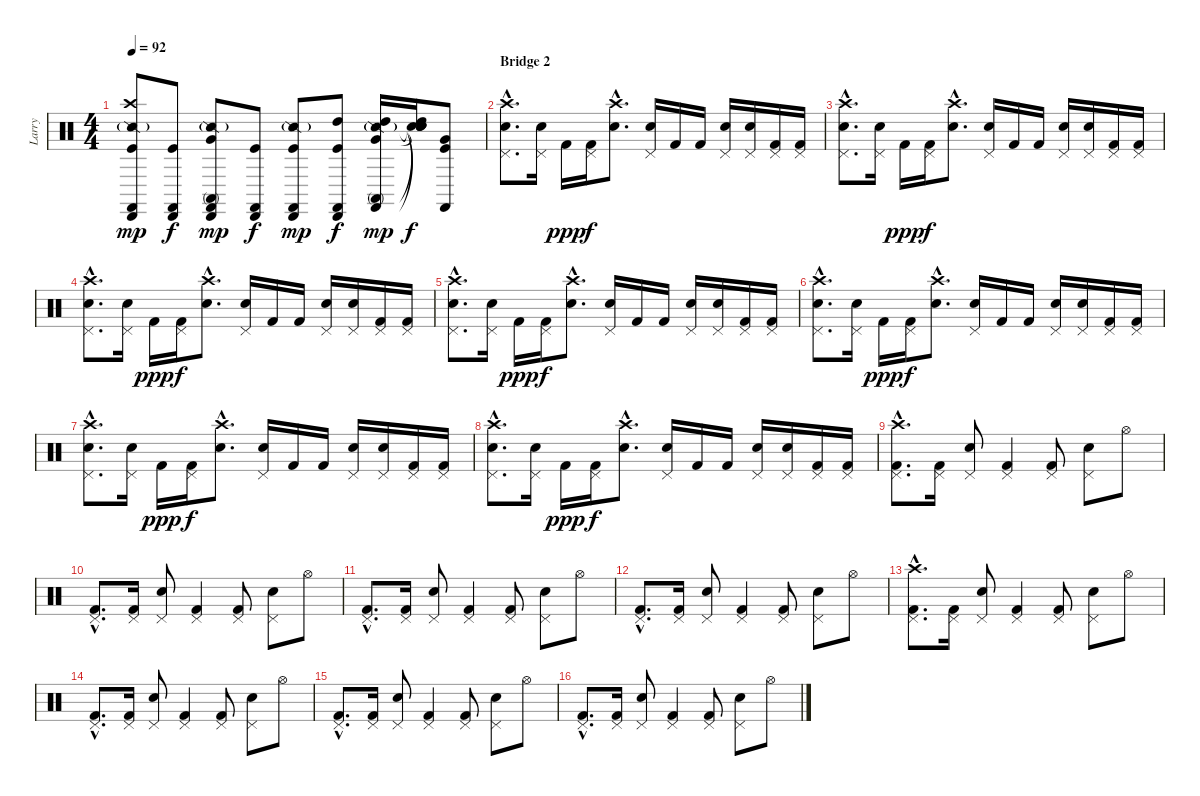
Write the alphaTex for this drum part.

\track ("Larry" "Larry") {instrument percussion}
\staff {score}
\articulation defaults
\ts (4 4)
\tempo 92
\clef neutral
\ks c
("Snare (side stick) 2"{g} "Castanets (hit)" "Cabasa (hit)" "Kick (hit)" "Crash high (hit)").8{dy mp} ("Castanets (hit)" "Cabasa (hit)" "Kick (hit)").8{dy f} ("Snare (side stick) 2"{g} "Castanets (hit)" "Cabasa (hit)" "Conga high (mute)" "Very Low Tom (hit)").8{dy mp} ("Castanets (hit)" "Cabasa (hit)" "Kick (hit)").8{dy f} ("Snare (side stick) 2"{g} "Castanets (hit)" "Cabasa (hit)" "Kick (hit)").8{dy mp} ("Castanets (hit)" "Cabasa (hit)" "High Tom (hit)" "Kick (hit)").8{dy f} ("Snare (side stick) 2"{g} "Castanets (hit)" "High Tom (hit)" "Conga high (mute)" "Very Low Tom (hit)").16{dy mp} ("Snare (hit)"{t} "Snare (hit)"{t} "High Tom (hit)" "Snare (hit)"{t} "Snare (hit)"{t}).16{dy f} ("Castanets (hit)" "Very Low Tom (hit)" "Kick (hit)").8 |
\section ("" "Bridge 2")
("Crash high (hit)"{hac} "Pedal Hi-Hat (hit)"{hac} "Snare (hit) 2"{hac}).8{d} ("Pedal Hi-Hat (hit)" "Snare (hit) 2").16 "Kick (hit) 2".16{dy ppp} ("Pedal Hi-Hat (hit)" "Kick (hit) 2").16{dy f} ("Crash high (hit)"{hac} "Snare (hit) 2"{hac}).8{d} ("Pedal Hi-Hat (hit)" "Snare (hit) 2").16 "Kick (hit) 2".16 "Kick (hit) 2".16 ("Pedal Hi-Hat (hit)" "Snare (hit) 2").16 ("Pedal Hi-Hat (hit)" "Snare (hit) 2").16 ("Pedal Hi-Hat (hit)" "Kick (hit) 2").16 ("Pedal Hi-Hat (hit)" "Kick (hit) 2").16 |
("Crash high (hit)"{hac} "Pedal Hi-Hat (hit)"{hac} "Snare (hit) 2"{hac}).8{d} ("Pedal Hi-Hat (hit)" "Snare (hit) 2").16 "Kick (hit) 2".16{dy ppp} ("Pedal Hi-Hat (hit)" "Kick (hit) 2").16{dy f} ("Crash high (hit)"{hac} "Snare (hit) 2"{hac}).8{d} ("Pedal Hi-Hat (hit)" "Snare (hit) 2").16 "Kick (hit) 2".16 "Kick (hit) 2".16 ("Pedal Hi-Hat (hit)" "Snare (hit) 2").16 ("Pedal Hi-Hat (hit)" "Snare (hit) 2").16 ("Pedal Hi-Hat (hit)" "Kick (hit) 2").16 ("Pedal Hi-Hat (hit)" "Kick (hit) 2").16 |
("Crash high (hit)"{hac} "Pedal Hi-Hat (hit)"{hac} "Snare (hit) 2"{hac}).8{d} ("Pedal Hi-Hat (hit)" "Snare (hit) 2").16 "Kick (hit) 2".16{dy ppp} ("Pedal Hi-Hat (hit)" "Kick (hit) 2").16{dy f} ("Crash high (hit)"{hac} "Snare (hit) 2"{hac}).8{d} ("Pedal Hi-Hat (hit)" "Snare (hit) 2").16 "Kick (hit) 2".16 "Kick (hit) 2".16 ("Pedal Hi-Hat (hit)" "Snare (hit) 2").16 ("Pedal Hi-Hat (hit)" "Snare (hit) 2").16 ("Pedal Hi-Hat (hit)" "Kick (hit) 2").16 ("Pedal Hi-Hat (hit)" "Kick (hit) 2").16 |
("Crash high (hit)"{hac} "Pedal Hi-Hat (hit)"{hac} "Snare (hit) 2"{hac}).8{d} ("Pedal Hi-Hat (hit)" "Snare (hit) 2").16 "Kick (hit) 2".16{dy ppp} ("Pedal Hi-Hat (hit)" "Kick (hit) 2").16{dy f} ("Crash high (hit)"{hac} "Snare (hit) 2"{hac}).8{d} ("Pedal Hi-Hat (hit)" "Snare (hit) 2").16 "Kick (hit) 2".16 "Kick (hit) 2".16 ("Pedal Hi-Hat (hit)" "Snare (hit) 2").16 ("Pedal Hi-Hat (hit)" "Snare (hit) 2").16 ("Pedal Hi-Hat (hit)" "Kick (hit) 2").16 ("Pedal Hi-Hat (hit)" "Kick (hit) 2").16 |
("Crash high (hit)"{hac} "Pedal Hi-Hat (hit)"{hac} "Snare (hit) 2"{hac}).8{d} ("Pedal Hi-Hat (hit)" "Snare (hit) 2").16 "Kick (hit) 2".16{dy ppp} ("Pedal Hi-Hat (hit)" "Kick (hit) 2").16{dy f} ("Crash high (hit)"{hac} "Snare (hit) 2"{hac}).8{d} ("Pedal Hi-Hat (hit)" "Snare (hit) 2").16 "Kick (hit) 2".16 "Kick (hit) 2".16 ("Pedal Hi-Hat (hit)" "Snare (hit) 2").16 ("Pedal Hi-Hat (hit)" "Snare (hit) 2").16 ("Pedal Hi-Hat (hit)" "Kick (hit) 2").16 ("Pedal Hi-Hat (hit)" "Kick (hit) 2").16 |
("Crash high (hit)"{hac} "Pedal Hi-Hat (hit)"{hac} "Snare (hit) 2"{hac}).8{d} ("Pedal Hi-Hat (hit)" "Snare (hit) 2").16 "Kick (hit) 2".16{dy ppp} ("Pedal Hi-Hat (hit)" "Kick (hit) 2").16{dy f} ("Crash high (hit)"{hac} "Snare (hit) 2"{hac}).8{d} ("Pedal Hi-Hat (hit)" "Snare (hit) 2").16 "Kick (hit) 2".16 "Kick (hit) 2".16 ("Pedal Hi-Hat (hit)" "Snare (hit) 2").16 ("Pedal Hi-Hat (hit)" "Snare (hit) 2").16 ("Pedal Hi-Hat (hit)" "Kick (hit) 2").16 ("Pedal Hi-Hat (hit)" "Kick (hit) 2").16 |
("Crash high (hit)"{hac} "Pedal Hi-Hat (hit)"{hac} "Snare (hit) 2"{hac}).8{d} ("Pedal Hi-Hat (hit)" "Snare (hit) 2").16 "Kick (hit) 2".16{dy ppp} ("Pedal Hi-Hat (hit)" "Kick (hit) 2").16{dy f} ("Crash high (hit)"{hac} "Snare (hit) 2"{hac}).8{d} ("Pedal Hi-Hat (hit)" "Snare (hit) 2").16 "Kick (hit) 2".16 "Kick (hit) 2".16 ("Pedal Hi-Hat (hit)" "Snare (hit) 2").16 ("Pedal Hi-Hat (hit)" "Snare (hit) 2").16 ("Pedal Hi-Hat (hit)" "Kick (hit) 2").16 ("Pedal Hi-Hat (hit)" "Kick (hit) 2").16 |
("Crash high (hit)"{hac} "Pedal Hi-Hat (hit)"{hac} "Kick (hit) 2"{hac}).8{d} ("Pedal Hi-Hat (hit)" "Kick (hit) 2").16 ("Pedal Hi-Hat (hit)" "Snare (hit) 2").8 ("Pedal Hi-Hat (hit)" "Kick (hit) 2").4 ("Pedal Hi-Hat (hit)" "Kick (hit) 2").8 ("Pedal Hi-Hat (hit)" "Snare (hit) 2").8 "Hi-Hat (open)".8 |
("Pedal Hi-Hat (hit)"{hac} "Kick (hit) 2"{hac}).8{d} ("Pedal Hi-Hat (hit)" "Kick (hit) 2").16 ("Pedal Hi-Hat (hit)" "Snare (hit) 2").8 ("Pedal Hi-Hat (hit)" "Kick (hit) 2").4 ("Pedal Hi-Hat (hit)" "Kick (hit) 2").8 ("Pedal Hi-Hat (hit)" "Snare (hit) 2").8 "Hi-Hat (open)".8 |
("Pedal Hi-Hat (hit)"{hac} "Kick (hit) 2"{hac}).8{d} ("Pedal Hi-Hat (hit)" "Kick (hit) 2").16 ("Pedal Hi-Hat (hit)" "Snare (hit) 2").8 ("Pedal Hi-Hat (hit)" "Kick (hit) 2").4 ("Pedal Hi-Hat (hit)" "Kick (hit) 2").8 ("Pedal Hi-Hat (hit)" "Snare (hit) 2").8 "Hi-Hat (open)".8 |
("Pedal Hi-Hat (hit)"{hac} "Kick (hit) 2"{hac}).8{d} ("Pedal Hi-Hat (hit)" "Kick (hit) 2").16 ("Pedal Hi-Hat (hit)" "Snare (hit) 2").8 ("Pedal Hi-Hat (hit)" "Kick (hit) 2").4 ("Pedal Hi-Hat (hit)" "Kick (hit) 2").8 ("Pedal Hi-Hat (hit)" "Snare (hit) 2").8 "Hi-Hat (open)".8 |
("Crash high (hit)"{hac} "Pedal Hi-Hat (hit)"{hac} "Kick (hit) 2"{hac}).8{d} ("Pedal Hi-Hat (hit)" "Kick (hit) 2").16 ("Pedal Hi-Hat (hit)" "Snare (hit) 2").8 ("Pedal Hi-Hat (hit)" "Kick (hit) 2").4 ("Pedal Hi-Hat (hit)" "Kick (hit) 2").8 ("Pedal Hi-Hat (hit)" "Snare (hit) 2").8 "Hi-Hat (open)".8 |
("Pedal Hi-Hat (hit)"{hac} "Kick (hit) 2"{hac}).8{d} ("Pedal Hi-Hat (hit)" "Kick (hit) 2").16 ("Pedal Hi-Hat (hit)" "Snare (hit) 2").8 ("Pedal Hi-Hat (hit)" "Kick (hit) 2").4 ("Pedal Hi-Hat (hit)" "Kick (hit) 2").8 ("Pedal Hi-Hat (hit)" "Snare (hit) 2").8 "Hi-Hat (open)".8 |
("Pedal Hi-Hat (hit)"{hac} "Kick (hit) 2"{hac}).8{d} ("Pedal Hi-Hat (hit)" "Kick (hit) 2").16 ("Pedal Hi-Hat (hit)" "Snare (hit) 2").8 ("Pedal Hi-Hat (hit)" "Kick (hit) 2").4 ("Pedal Hi-Hat (hit)" "Kick (hit) 2").8 ("Pedal Hi-Hat (hit)" "Snare (hit) 2").8 "Hi-Hat (open)".8 |
("Pedal Hi-Hat (hit)"{hac} "Kick (hit) 2"{hac}).8{d} ("Pedal Hi-Hat (hit)" "Kick (hit) 2").16 ("Pedal Hi-Hat (hit)" "Snare (hit) 2").8 ("Pedal Hi-Hat (hit)" "Kick (hit) 2").4 ("Pedal Hi-Hat (hit)" "Kick (hit) 2").8 ("Pedal Hi-Hat (hit)" "Snare (hit) 2").8 "Hi-Hat (open)".8
